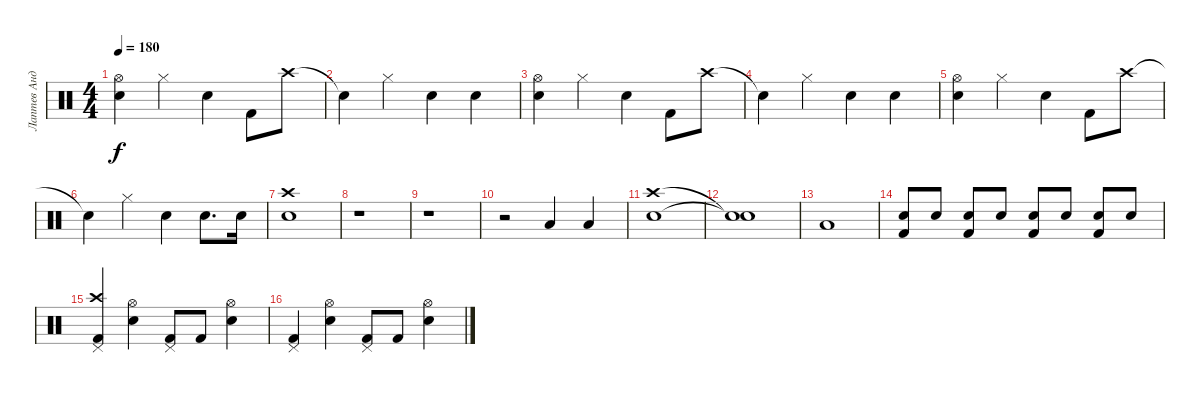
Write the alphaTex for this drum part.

\track ("Лаптев Андрей" "Лаптев Анд") {instrument percussion}
\staff {score}
\articulation defaults
\ts (4 4)
\tempo 180
\clef neutral
\ks c
("Snare (hit) 2" "Hi-Hat (open)").4{dy f} "Hi-Hat (closed)".4 "Snare (hit) 2".4 "Kick (hit) 2".8 "Crash high (hit)".8 |
"Snare (hit)"{t}.4 "Hi-Hat (closed)".4 "Snare (hit) 2".4 "Snare (hit) 2".4 |
("Snare (hit) 2" "Hi-Hat (open)").4 "Hi-Hat (closed)".4 "Snare (hit) 2".4 "Kick (hit) 2".8 "Crash high (hit)".8 |
"Snare (hit)"{t}.4 "Hi-Hat (closed)".4 "Snare (hit) 2".4 "Snare (hit) 2".4 |
("Snare (hit) 2" "Hi-Hat (open)").4 "Hi-Hat (closed)".4 "Snare (hit) 2".4 "Kick (hit) 2".8 "Crash high (hit)".8 |
"Snare (hit)"{t}.4 "Hi-Hat (closed)".4 "Snare (hit) 2".4 "Snare (hit) 2".8{d} "Snare (hit) 2".16 |
("Snare (hit) 2" "Crash high (hit)").1 |
r.1 |
r.1 |
r.2 "Low Tom (hit)".4 "Low Tom (hit)".4 |
("Snare (hit) 2" "Crash high (hit)").1 |
("Snare (hit)"{t} "Snare (hit)"{t}).1 |
"Low Tom (hit)".1 |
("Snare (hit) 2" "Kick (hit) 2").8 "Snare (hit) 2".8 ("Snare (hit) 2" "Kick (hit) 2").8 "Snare (hit) 2".8 ("Snare (hit) 2" "Kick (hit) 2").8 "Snare (hit) 2".8 ("Snare (hit) 2" "Kick (hit) 2").8 "Snare (hit) 2".8 |
("Kick (hit) 2" "Crash high (hit)" "Pedal Hi-Hat (hit)").4 ("Snare (hit) 2" "Hi-Hat (open)").4 ("Kick (hit) 2" "Pedal Hi-Hat (hit)").8 "Kick (hit) 2".8 ("Snare (hit) 2" "Hi-Hat (open)").4 |
("Kick (hit) 2" "Pedal Hi-Hat (hit)").4 ("Snare (hit) 2" "Hi-Hat (open)").4 ("Kick (hit) 2" "Pedal Hi-Hat (hit)").8 "Kick (hit) 2".8 ("Snare (hit) 2" "Hi-Hat (open)").4
